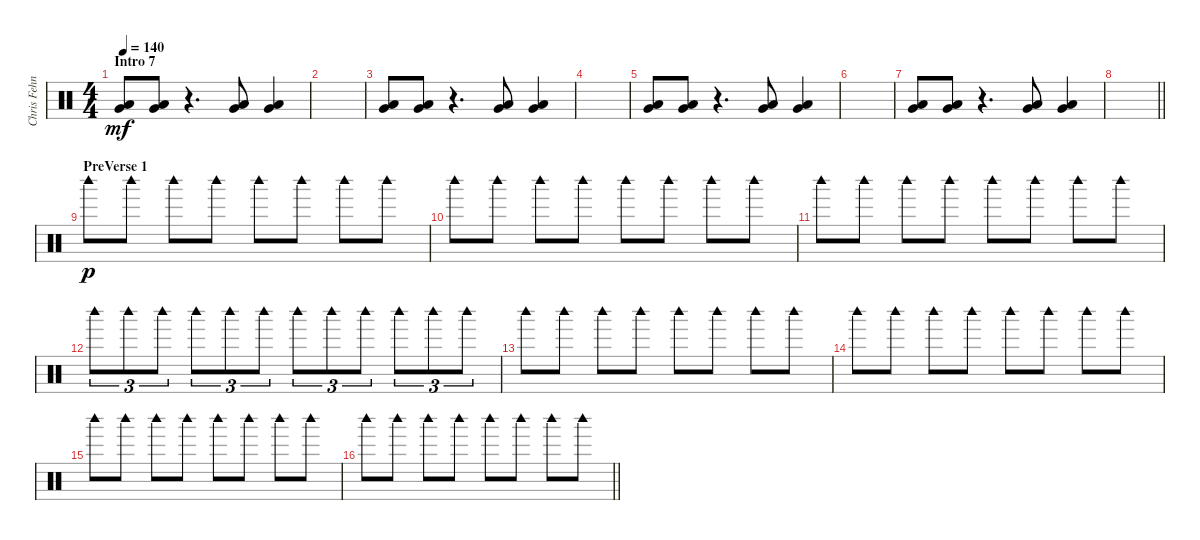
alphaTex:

\track ("Chris Fehn" "Chris Fehn") {instrument percussion}
\staff {score}
\articulation defaults
\ts (4 4)
\section ("" "Intro 7")
\tempo 140
\clef neutral
\ks c
("Very Low Tom (hit)" "Low Floor Tom (hit)").8{dy mf} ("Very Low Tom (hit)" "Low Floor Tom (hit)").8 r.4{d} ("Very Low Tom (hit)" "Low Floor Tom (hit)").8 ("Very Low Tom (hit)" "Low Floor Tom (hit)").4 |
|
("Very Low Tom (hit)" "Low Floor Tom (hit)").8 ("Very Low Tom (hit)" "Low Floor Tom (hit)").8 r.4{d} ("Very Low Tom (hit)" "Low Floor Tom (hit)").8 ("Very Low Tom (hit)" "Low Floor Tom (hit)").4 |
|
("Very Low Tom (hit)" "Low Floor Tom (hit)").8 ("Very Low Tom (hit)" "Low Floor Tom (hit)").8 r.4{d} ("Very Low Tom (hit)" "Low Floor Tom (hit)").8 ("Very Low Tom (hit)" "Low Floor Tom (hit)").4 |
|
("Very Low Tom (hit)" "Low Floor Tom (hit)").8 ("Very Low Tom (hit)" "Low Floor Tom (hit)").8 r.4{d} ("Very Low Tom (hit)" "Low Floor Tom (hit)").8 ("Very Low Tom (hit)" "Low Floor Tom (hit)").4 |
\barLineRight lightlight
|
\section ("" "PreVerse 1")
"Woodblock high (hit)".8{dy p} "Woodblock high (hit)".8 "Woodblock high (hit)".8 "Woodblock high (hit)".8 "Woodblock high (hit)".8 "Woodblock high (hit)".8 "Woodblock high (hit)".8 "Woodblock high (hit)".8 |
"Woodblock high (hit)".8 "Woodblock high (hit)".8 "Woodblock high (hit)".8 "Woodblock high (hit)".8 "Woodblock high (hit)".8 "Woodblock high (hit)".8 "Woodblock high (hit)".8 "Woodblock high (hit)".8 |
"Woodblock high (hit)".8 "Woodblock high (hit)".8 "Woodblock high (hit)".8 "Woodblock high (hit)".8 "Woodblock high (hit)".8 "Woodblock high (hit)".8 "Woodblock high (hit)".8 "Woodblock high (hit)".8 |
"Woodblock high (hit)".8{tu (3 2)} "Woodblock high (hit)".8{tu (3 2)} "Woodblock high (hit)".8{tu (3 2)} "Woodblock high (hit)".8{tu (3 2)} "Woodblock high (hit)".8{tu (3 2)} "Woodblock high (hit)".8{tu (3 2)} "Woodblock high (hit)".8{tu (3 2)} "Woodblock high (hit)".8{tu (3 2)} "Woodblock high (hit)".8{tu (3 2)} "Woodblock high (hit)".8{tu (3 2)} "Woodblock high (hit)".8{tu (3 2)} "Woodblock high (hit)".8{tu (3 2)} |
"Woodblock high (hit)".8 "Woodblock high (hit)".8 "Woodblock high (hit)".8 "Woodblock high (hit)".8 "Woodblock high (hit)".8 "Woodblock high (hit)".8 "Woodblock high (hit)".8 "Woodblock high (hit)".8 |
"Woodblock high (hit)".8 "Woodblock high (hit)".8 "Woodblock high (hit)".8 "Woodblock high (hit)".8 "Woodblock high (hit)".8 "Woodblock high (hit)".8 "Woodblock high (hit)".8 "Woodblock high (hit)".8 |
"Woodblock high (hit)".8 "Woodblock high (hit)".8 "Woodblock high (hit)".8 "Woodblock high (hit)".8 "Woodblock high (hit)".8 "Woodblock high (hit)".8 "Woodblock high (hit)".8 "Woodblock high (hit)".8 |
\barLineRight lightlight "Woodblock high (hit)".8 "Woodblock high (hit)".8 "Woodblock high (hit)".8 "Woodblock high (hit)".8 "Woodblock high (hit)".8 "Woodblock high (hit)".8 "Woodblock high (hit)".8 "Woodblock high (hit)".8
